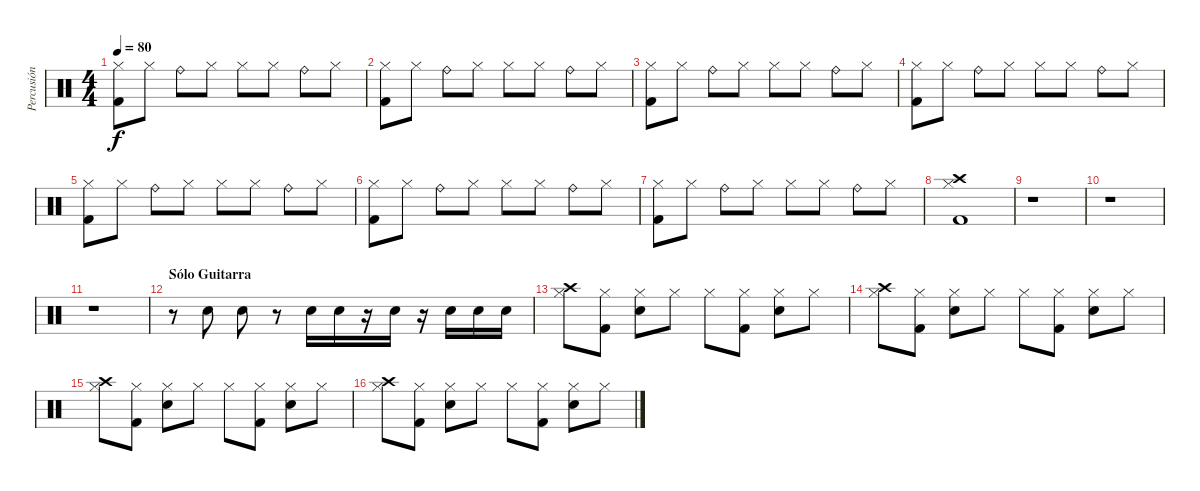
\track ("Percusión (J@vier MoLin@)" "Percusión ") {instrument percussion}
\staff {score}
\articulation defaults
\ts (4 4)
\tempo 80
\clef neutral
\ks c
("Hi-Hat (closed)" "Kick (hit) 2").8{dy f} "Hi-Hat (closed)".8 "Ride (bell)".8 "Hi-Hat (closed)".8 "Hi-Hat (closed)".8 "Hi-Hat (closed)".8 "Ride (bell)".8 "Hi-Hat (closed)".8 |
("Hi-Hat (closed)" "Kick (hit) 2").8 "Hi-Hat (closed)".8 "Ride (bell)".8 "Hi-Hat (closed)".8 "Hi-Hat (closed)".8 "Hi-Hat (closed)".8 "Ride (bell)".8 "Hi-Hat (closed)".8 |
("Hi-Hat (closed)" "Kick (hit) 2").8 "Hi-Hat (closed)".8 "Ride (bell)".8 "Hi-Hat (closed)".8 "Hi-Hat (closed)".8 "Hi-Hat (closed)".8 "Ride (bell)".8 "Hi-Hat (closed)".8 |
("Hi-Hat (closed)" "Kick (hit) 2").8 "Hi-Hat (closed)".8 "Ride (bell)".8 "Hi-Hat (closed)".8 "Hi-Hat (closed)".8 "Hi-Hat (closed)".8 "Ride (bell)".8 "Hi-Hat (closed)".8 |
("Hi-Hat (closed)" "Kick (hit) 2").8 "Hi-Hat (closed)".8 "Ride (bell)".8 "Hi-Hat (closed)".8 "Hi-Hat (closed)".8 "Hi-Hat (closed)".8 "Ride (bell)".8 "Hi-Hat (closed)".8 |
("Hi-Hat (closed)" "Kick (hit) 2").8 "Hi-Hat (closed)".8 "Ride (bell)".8 "Hi-Hat (closed)".8 "Hi-Hat (closed)".8 "Hi-Hat (closed)".8 "Ride (bell)".8 "Hi-Hat (closed)".8 |
("Hi-Hat (closed)" "Kick (hit) 2").8 "Hi-Hat (closed)".8 "Ride (bell)".8 "Hi-Hat (closed)".8 "Hi-Hat (closed)".8 "Hi-Hat (closed)".8 "Ride (bell)".8 "Hi-Hat (closed)".8 |
("Hi-Hat (closed)" "Crash high (hit)" "Kick (hit) 2").1 |
r.1 |
r.1 |
r.1 |
\section ("" "Sólo Guitarra")
r.8 "Snare (hit) 2".8 "Snare (hit) 2".8 r.8 "Snare (hit) 2".16 "Snare (hit) 2".16 r.16 "Snare (hit) 2".16 r.16 "Snare (hit) 2".16 "Snare (hit) 2".16 "Snare (hit) 2".16 |
("Hi-Hat (closed)" "Crash high (hit)").8 ("Hi-Hat (closed)" "Kick (hit) 2").8 ("Hi-Hat (closed)" "Snare (hit) 2").8 "Hi-Hat (closed)".8 "Hi-Hat (closed)".8 ("Hi-Hat (closed)" "Kick (hit) 2").8 ("Hi-Hat (closed)" "Snare (hit) 2").8 "Hi-Hat (closed)".8 |
("Hi-Hat (closed)" "Crash high (hit)").8 ("Hi-Hat (closed)" "Kick (hit) 2").8 ("Hi-Hat (closed)" "Snare (hit) 2").8 "Hi-Hat (closed)".8 "Hi-Hat (closed)".8 ("Hi-Hat (closed)" "Kick (hit) 2").8 ("Hi-Hat (closed)" "Snare (hit) 2").8 "Hi-Hat (closed)".8 |
("Hi-Hat (closed)" "Crash high (hit)").8 ("Hi-Hat (closed)" "Kick (hit) 2").8 ("Hi-Hat (closed)" "Snare (hit) 2").8 "Hi-Hat (closed)".8 "Hi-Hat (closed)".8 ("Hi-Hat (closed)" "Kick (hit) 2").8 ("Hi-Hat (closed)" "Snare (hit) 2").8 "Hi-Hat (closed)".8 |
("Hi-Hat (closed)" "Crash high (hit)").8 ("Hi-Hat (closed)" "Kick (hit) 2").8 ("Hi-Hat (closed)" "Snare (hit) 2").8 "Hi-Hat (closed)".8 "Hi-Hat (closed)".8 ("Hi-Hat (closed)" "Kick (hit) 2").8 ("Hi-Hat (closed)" "Snare (hit) 2").8 "Hi-Hat (closed)".8
